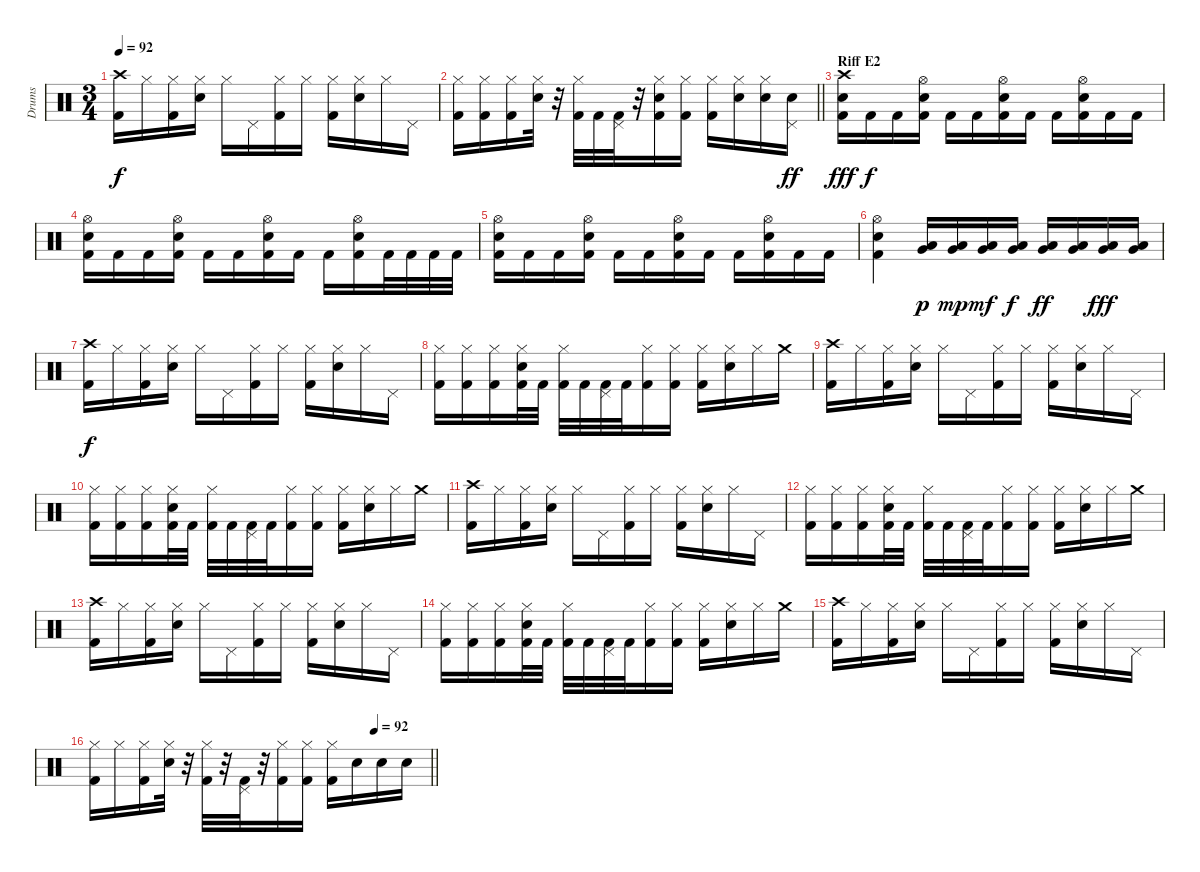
\track ("Drums" "Drums") {instrument percussion}
\staff {score}
\articulation defaults
\ts (3 4)
\tempo 92
\clef neutral
\ks c
("Crash high (hit)" "Kick (hit) 2").16{dy f} "Hi-Hat (closed)".16 ("Hi-Hat (closed)" "Kick (hit) 2").16 ("Hi-Hat (closed)" "Electric Snare (hit)").16 "Hi-Hat (closed)".16 "Pedal Hi-Hat (hit)".16 ("Hi-Hat (closed)" "Kick (hit) 2").16 "Hi-Hat (closed)".16 ("Hi-Hat (closed)" "Kick (hit) 2").16 ("Hi-Hat (closed)" "Electric Snare (hit)").16 "Hi-Hat (closed)".16 "Pedal Hi-Hat (hit)".16 |
\barLineRight lightlight
("Hi-Hat (closed)" "Kick (hit) 2").16 ("Hi-Hat (closed)" "Kick (hit) 2").16 ("Hi-Hat (closed)" "Kick (hit) 2").16 ("Hi-Hat (closed)" "Electric Snare (hit)").32 r.32 ("Hi-Hat (closed)" "Kick (hit) 2").32 "Kick (hit) 2".32 ("Pedal Hi-Hat (hit)" "Kick (hit) 2").32 r.32 ("Hi-Hat (closed)" "Electric Snare (hit)" "Kick (hit) 2").16 ("Hi-Hat (closed)" "Kick (hit) 2").16 ("Hi-Hat (closed)" "Kick (hit) 2").16 ("Hi-Hat (closed)" "Electric Snare (hit)").16 ("Hi-Hat (closed)" "Electric Snare (hit)").16 ("Pedal Hi-Hat (hit)" "Electric Snare (hit)").16{dy ff} |
\section ("" "Riff E2")
("Crash high (hit)" "Electric Snare (hit)" "Kick (hit) 2").16{dy fff} "Kick (hit) 2".16{dy f} "Kick (hit) 2".16 ("Hi-Hat (open)" "Electric Snare (hit)" "Kick (hit) 2").16 "Kick (hit) 2".16 "Kick (hit) 2".16 ("Hi-Hat (open)" "Electric Snare (hit)" "Kick (hit) 2").16 "Kick (hit) 2".16 "Kick (hit) 2".16 ("Hi-Hat (open)" "Electric Snare (hit)" "Kick (hit) 2").16 "Kick (hit) 2".16 "Kick (hit) 2".16 |
("Hi-Hat (open)" "Electric Snare (hit)" "Kick (hit) 2").16 "Kick (hit) 2".16 "Kick (hit) 2".16 ("Hi-Hat (open)" "Electric Snare (hit)" "Kick (hit) 2").16 "Kick (hit) 2".16 "Kick (hit) 2".16 ("Hi-Hat (open)" "Electric Snare (hit)" "Kick (hit) 2").16 "Kick (hit) 2".16 "Kick (hit) 2".16 ("Hi-Hat (open)" "Electric Snare (hit)" "Kick (hit) 2").16 "Kick (hit) 2".32 "Kick (hit) 2".32 "Kick (hit) 2".32 "Kick (hit) 2".32 |
("Hi-Hat (open)" "Electric Snare (hit)" "Kick (hit) 2").16 "Kick (hit) 2".16 "Kick (hit) 2".16 ("Hi-Hat (open)" "Electric Snare (hit)" "Kick (hit) 2").16 "Kick (hit) 2".16 "Kick (hit) 2".16 ("Hi-Hat (open)" "Electric Snare (hit)" "Kick (hit) 2").16 "Kick (hit) 2".16 "Kick (hit) 2".16 ("Hi-Hat (open)" "Electric Snare (hit)" "Kick (hit) 2").16 "Kick (hit) 2".16 "Kick (hit) 2".16 |
("Hi-Hat (open)" "Electric Snare (hit)" "Kick (hit) 2").4 ("Very Low Tom (hit)" "Low Tom (hit)").16{dy p} ("Very Low Tom (hit)" "Low Tom (hit)").16{dy mp} ("Very Low Tom (hit)" "Low Tom (hit)").16{dy mf} ("Very Low Tom (hit)" "Low Tom (hit)").16{dy f} ("Very Low Tom (hit)" "Low Tom (hit)").16{dy ff} ("Very Low Tom (hit)" "Low Tom (hit)").16 ("Very Low Tom (hit)" "Low Tom (hit)").16{dy fff} ("Very Low Tom (hit)" "Low Tom (hit)").16 |
("Crash high (hit)" "Kick (hit) 2").16{dy f} "Hi-Hat (closed)".16 ("Hi-Hat (closed)" "Kick (hit) 2").16 ("Hi-Hat (closed)" "Electric Snare (hit)").16 "Hi-Hat (closed)".16 "Pedal Hi-Hat (hit)".16 ("Hi-Hat (closed)" "Kick (hit) 2").16 "Hi-Hat (closed)".16 ("Hi-Hat (closed)" "Kick (hit) 2").16 ("Hi-Hat (closed)" "Electric Snare (hit)").16 "Hi-Hat (closed)".16 "Pedal Hi-Hat (hit)".16 |
("Hi-Hat (closed)" "Kick (hit) 2").16 ("Hi-Hat (closed)" "Kick (hit) 2").16 ("Hi-Hat (closed)" "Kick (hit) 2").16 ("Hi-Hat (closed)" "Electric Snare (hit)" "Kick (hit) 2").32 "Kick (hit) 2".32 ("Hi-Hat (closed)" "Kick (hit) 2").32 "Kick (hit) 2".32 ("Pedal Hi-Hat (hit)" "Kick (hit) 2").32 "Kick (hit) 2".32 ("Hi-Hat (closed)" "Kick (hit) 2").16 ("Hi-Hat (closed)" "Kick (hit) 2").16 ("Hi-Hat (closed)" "Kick (hit) 2").16 ("Hi-Hat (closed)" "Electric Snare (hit)").16 "Hi-Hat (closed)".16 "Crash medium (hit)".16 |
("Crash high (hit)" "Kick (hit) 2").16 "Hi-Hat (closed)".16 ("Hi-Hat (closed)" "Kick (hit) 2").16 ("Hi-Hat (closed)" "Electric Snare (hit)").16 "Hi-Hat (closed)".16 "Pedal Hi-Hat (hit)".16 ("Hi-Hat (closed)" "Kick (hit) 2").16 "Hi-Hat (closed)".16 ("Hi-Hat (closed)" "Kick (hit) 2").16 ("Hi-Hat (closed)" "Electric Snare (hit)").16 "Hi-Hat (closed)".16 "Pedal Hi-Hat (hit)".16 |
("Hi-Hat (closed)" "Kick (hit) 2").16 ("Hi-Hat (closed)" "Kick (hit) 2").16 ("Hi-Hat (closed)" "Kick (hit) 2").16 ("Hi-Hat (closed)" "Electric Snare (hit)" "Kick (hit) 2").32 "Kick (hit) 2".32 ("Hi-Hat (closed)" "Kick (hit) 2").32 "Kick (hit) 2".32 ("Pedal Hi-Hat (hit)" "Kick (hit) 2").32 "Kick (hit) 2".32 ("Hi-Hat (closed)" "Kick (hit) 2").16 ("Hi-Hat (closed)" "Kick (hit) 2").16 ("Hi-Hat (closed)" "Kick (hit) 2").16 ("Hi-Hat (closed)" "Electric Snare (hit)").16 "Hi-Hat (closed)".16 "Crash medium (hit)".16 |
("Crash high (hit)" "Kick (hit) 2").16 "Hi-Hat (closed)".16 ("Hi-Hat (closed)" "Kick (hit) 2").16 ("Hi-Hat (closed)" "Electric Snare (hit)").16 "Hi-Hat (closed)".16 "Pedal Hi-Hat (hit)".16 ("Hi-Hat (closed)" "Kick (hit) 2").16 "Hi-Hat (closed)".16 ("Hi-Hat (closed)" "Kick (hit) 2").16 ("Hi-Hat (closed)" "Electric Snare (hit)").16 "Hi-Hat (closed)".16 "Pedal Hi-Hat (hit)".16 |
("Hi-Hat (closed)" "Kick (hit) 2").16 ("Hi-Hat (closed)" "Kick (hit) 2").16 ("Hi-Hat (closed)" "Kick (hit) 2").16 ("Hi-Hat (closed)" "Electric Snare (hit)" "Kick (hit) 2").32 "Kick (hit) 2".32 ("Hi-Hat (closed)" "Kick (hit) 2").32 "Kick (hit) 2".32 ("Pedal Hi-Hat (hit)" "Kick (hit) 2").32 "Kick (hit) 2".32 ("Hi-Hat (closed)" "Kick (hit) 2").16 ("Hi-Hat (closed)" "Kick (hit) 2").16 ("Hi-Hat (closed)" "Kick (hit) 2").16 ("Hi-Hat (closed)" "Electric Snare (hit)").16 "Hi-Hat (closed)".16 "Crash medium (hit)".16 |
("Crash high (hit)" "Kick (hit) 2").16 "Hi-Hat (closed)".16 ("Hi-Hat (closed)" "Kick (hit) 2").16 ("Hi-Hat (closed)" "Electric Snare (hit)").16 "Hi-Hat (closed)".16 "Pedal Hi-Hat (hit)".16 ("Hi-Hat (closed)" "Kick (hit) 2").16 "Hi-Hat (closed)".16 ("Hi-Hat (closed)" "Kick (hit) 2").16 ("Hi-Hat (closed)" "Electric Snare (hit)").16 "Hi-Hat (closed)".16 "Pedal Hi-Hat (hit)".16 |
("Hi-Hat (closed)" "Kick (hit) 2").16 ("Hi-Hat (closed)" "Kick (hit) 2").16 ("Hi-Hat (closed)" "Kick (hit) 2").16 ("Hi-Hat (closed)" "Electric Snare (hit)" "Kick (hit) 2").32 "Kick (hit) 2".32 ("Hi-Hat (closed)" "Kick (hit) 2").32 "Kick (hit) 2".32 ("Pedal Hi-Hat (hit)" "Kick (hit) 2").32 "Kick (hit) 2".32 ("Hi-Hat (closed)" "Kick (hit) 2").16 ("Hi-Hat (closed)" "Kick (hit) 2").16 ("Hi-Hat (closed)" "Kick (hit) 2").16 ("Hi-Hat (closed)" "Electric Snare (hit)").16 "Hi-Hat (closed)".16 "Crash medium (hit)".16 |
("Crash high (hit)" "Kick (hit) 2").16 "Hi-Hat (closed)".16 ("Hi-Hat (closed)" "Kick (hit) 2").16 ("Hi-Hat (closed)" "Electric Snare (hit)").16 "Hi-Hat (closed)".16 "Pedal Hi-Hat (hit)".16 ("Hi-Hat (closed)" "Kick (hit) 2").16 "Hi-Hat (closed)".16 ("Hi-Hat (closed)" "Kick (hit) 2").16 ("Hi-Hat (closed)" "Electric Snare (hit)").16 "Hi-Hat (closed)".16 "Pedal Hi-Hat (hit)".16 |
\tempo (92 0.8333333333333334)
\barLineRight lightlight
("Hi-Hat (closed)" "Kick (hit) 2").16 "Hi-Hat (closed)".16 ("Hi-Hat (closed)" "Kick (hit) 2").16 ("Hi-Hat (closed)" "Electric Snare (hit)").32 r.32 ("Hi-Hat (closed)" "Kick (hit) 2").32 r.32 ("Pedal Hi-Hat (hit)" "Kick (hit) 2").32 r.32 ("Hi-Hat (closed)" "Kick (hit) 2").16 ("Hi-Hat (closed)" "Kick (hit) 2").16 ("Hi-Hat (closed)" "Kick (hit) 2").16 "Electric Snare (hit)".16 "Electric Snare (hit)".16 "Electric Snare (hit)".16
